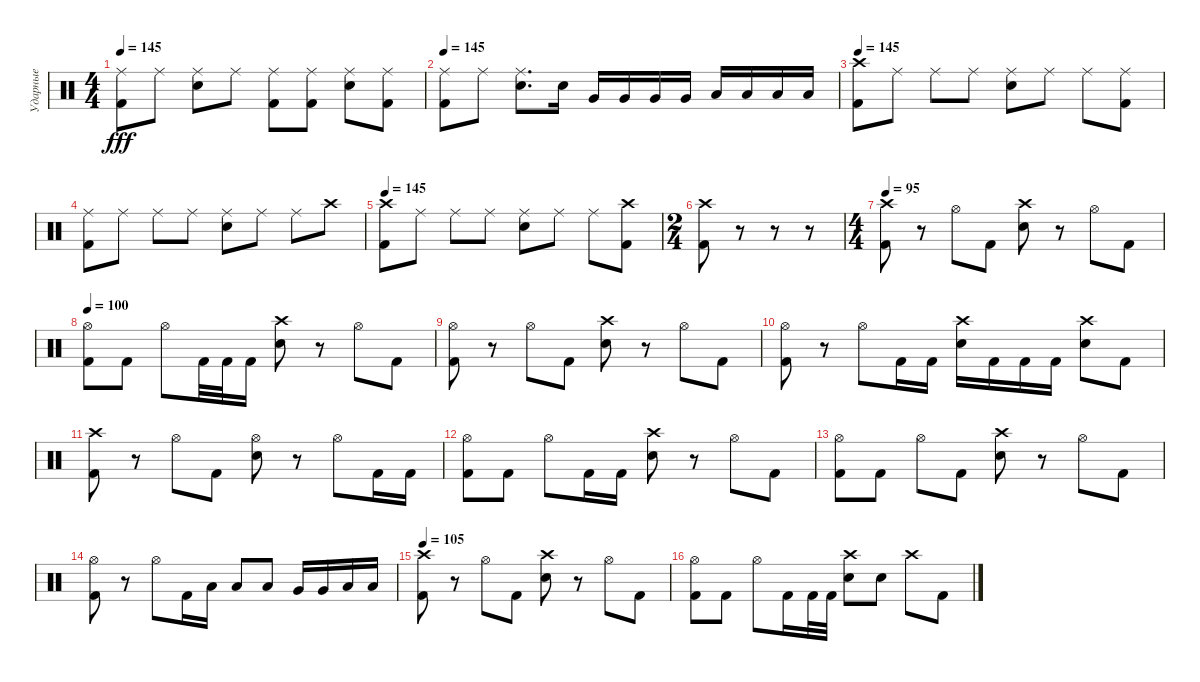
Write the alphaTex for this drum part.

\track ("Ударные" "Ударные") {instrument percussion}
\staff {score}
\articulation defaults
\ts (4 4)
\tempo 145
\clef neutral
\ks c
("Ride (middle)" "Kick (hit) 2").8{dy fff} "Ride (middle)".8 ("Ride (middle)" "Electric Snare (hit)").8 "Ride (middle)".8 ("Ride (middle)" "Kick (hit) 2").8 ("Ride (middle)" "Kick (hit) 2").8 ("Ride (middle)" "Electric Snare (hit)").8 ("Ride (middle)" "Kick (hit) 2").8 |
\tempo 145
("Ride (middle)" "Kick (hit) 2").8 "Ride (middle)".8 ("Ride (middle)" "Electric Snare (hit)").8{d} "Electric Snare (hit)".16 "Very Low Tom (hit)".16 "Very Low Tom (hit)".16 "Very Low Tom (hit)".16 "Very Low Tom (hit)".16 "Low Floor Tom (hit)".16 "Low Floor Tom (hit)".16 "Low Floor Tom (hit)".16 "Low Floor Tom (hit)".16 |
\tempo 145
("Crash high (hit)" "Kick (hit) 2").8 "Ride (middle)".8 "Ride (middle)".8 "Ride (middle)".8 ("Ride (middle)" "Electric Snare (hit)").8 "Ride (middle)".8 "Ride (middle)".8 ("Ride (middle)" "Kick (hit) 2").8 |
("Ride (middle)" "Kick (hit) 2").8 "Ride (middle)".8 "Ride (middle)".8 "Ride (middle)".8 ("Ride (middle)" "Electric Snare (hit)").8 "Ride (middle)".8 "Ride (middle)".8 "Crash high (hit)".8 |
\tempo 145
("Crash high (hit)" "Kick (hit) 2").8 "Ride (middle)".8 "Ride (middle)".8 "Ride (middle)".8 ("Ride (middle)" "Electric Snare (hit)").8 "Ride (middle)".8 "Ride (middle)".8 ("Crash high (hit)" "Kick (hit) 2").8 |
\ts (2 4)
("Crash high (hit)" "Kick (hit) 2").8 r.8 r.8 r.8 |
\ts (4 4)
\tempo 95
("Crash high (hit)" "Kick (hit) 2").8 r.8 "Hi-Hat (open)".8 "Kick (hit) 2".8 ("Crash high (hit)" "Electric Snare (hit)").8 r.8 "Hi-Hat (open)".8 "Kick (hit) 2".8 |
\tempo 100
("Hi-Hat (open)" "Kick (hit) 2").8 "Kick (hit) 2".8 "Hi-Hat (open)".8 "Kick (hit) 2".32 "Kick (hit) 2".32 "Kick (hit) 2".16 ("Crash high (hit)" "Electric Snare (hit)").8 r.8 "Hi-Hat (open)".8 "Kick (hit) 2".8 |
("Hi-Hat (open)" "Kick (hit) 2").8 r.8 "Hi-Hat (open)".8 "Kick (hit) 2".8 ("Crash high (hit)" "Electric Snare (hit)").8 r.8 "Hi-Hat (open)".8 "Kick (hit) 2".8 |
("Hi-Hat (open)" "Kick (hit) 2").8 r.8 "Hi-Hat (open)".8 "Kick (hit) 2".16 "Kick (hit) 2".16 ("Crash high (hit)" "Electric Snare (hit)").16 "Kick (hit) 2".16 "Kick (hit) 2".16 "Kick (hit) 2".16 ("Crash high (hit)" "Electric Snare (hit)").8 "Kick (hit) 2".8 |
("Crash high (hit)" "Kick (hit) 2").8 r.8 "Hi-Hat (open)".8 "Kick (hit) 2".8 ("Hi-Hat (open)" "Electric Snare (hit)").8 r.8 "Hi-Hat (open)".8 "Kick (hit) 2".16 "Kick (hit) 2".16 |
("Hi-Hat (open)" "Kick (hit) 2").8 "Kick (hit) 2".8 "Hi-Hat (open)".8 "Kick (hit) 2".16 "Kick (hit) 2".16 ("Crash high (hit)" "Electric Snare (hit)").8 r.8 "Hi-Hat (open)".8 "Kick (hit) 2".8 |
("Hi-Hat (open)" "Kick (hit) 2").8 "Kick (hit) 2".8 "Hi-Hat (open)".8 "Kick (hit) 2".8 ("Crash high (hit)" "Electric Snare (hit)").8 r.8 "Hi-Hat (open)".8 "Kick (hit) 2".8 |
("Hi-Hat (open)" "Kick (hit) 2").8 r.8 "Hi-Hat (open)".8 "Kick (hit) 2".16 "Low Tom (hit)".16 "Low Tom (hit)".8 "Low Tom (hit)".8 "Very Low Tom (hit)".16 "Very Low Tom (hit)".16 "Low Floor Tom (hit)".16 "Low Floor Tom (hit)".16 |
\tempo 105
("Crash high (hit)" "Kick (hit) 2").8 r.8 "Hi-Hat (open)".8 "Kick (hit) 2".8 ("Crash high (hit)" "Electric Snare (hit)").8 r.8 "Hi-Hat (open)".8 "Kick (hit) 2".8 |
("Hi-Hat (open)" "Kick (hit) 2").8 "Kick (hit) 2".8 "Hi-Hat (open)".8 "Kick (hit) 2".16 "Kick (hit) 2".32 "Kick (hit) 2".32 ("Crash high (hit)" "Electric Snare (hit)").8 "Electric Snare (hit)".8 "Crash high (hit)".8 "Kick (hit) 2".8
